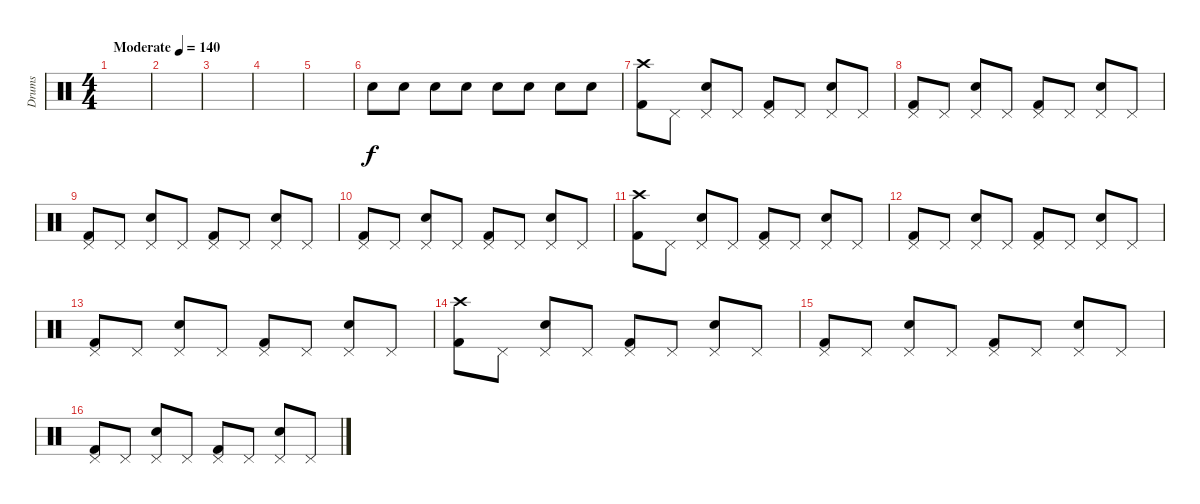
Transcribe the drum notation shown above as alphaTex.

\track ("Drums" "Drums") {instrument percussion}
\staff {score}
\articulation defaults
\ts (4 4)
\tempo (140 "Moderate")
\clef neutral
\ks c
|
|
|
|
|
"Snare (hit) 2".8 "Snare (hit) 2".8 "Snare (hit) 2".8 "Snare (hit) 2".8 "Snare (hit) 2".8 "Snare (hit) 2".8 "Snare (hit) 2".8 "Snare (hit) 2".8 |
("Crash high (hit)" "Kick (hit) 2").8 "Pedal Hi-Hat (hit)".8 ("Pedal Hi-Hat (hit)" "Snare (hit) 2").8 "Pedal Hi-Hat (hit)".8 ("Pedal Hi-Hat (hit)" "Kick (hit) 2").8 "Pedal Hi-Hat (hit)".8 ("Pedal Hi-Hat (hit)" "Snare (hit) 2").8 "Pedal Hi-Hat (hit)".8 |
("Pedal Hi-Hat (hit)" "Kick (hit) 2").8 "Pedal Hi-Hat (hit)".8 ("Pedal Hi-Hat (hit)" "Snare (hit) 2").8 "Pedal Hi-Hat (hit)".8 ("Pedal Hi-Hat (hit)" "Kick (hit) 2").8 "Pedal Hi-Hat (hit)".8 ("Pedal Hi-Hat (hit)" "Snare (hit) 2").8 "Pedal Hi-Hat (hit)".8 |
("Pedal Hi-Hat (hit)" "Kick (hit) 2").8 "Pedal Hi-Hat (hit)".8 ("Pedal Hi-Hat (hit)" "Snare (hit) 2").8 "Pedal Hi-Hat (hit)".8 ("Pedal Hi-Hat (hit)" "Kick (hit) 2").8 "Pedal Hi-Hat (hit)".8 ("Pedal Hi-Hat (hit)" "Snare (hit) 2").8 "Pedal Hi-Hat (hit)".8 |
("Pedal Hi-Hat (hit)" "Kick (hit) 2").8 "Pedal Hi-Hat (hit)".8 ("Pedal Hi-Hat (hit)" "Snare (hit) 2").8 "Pedal Hi-Hat (hit)".8 ("Pedal Hi-Hat (hit)" "Kick (hit) 2").8 "Pedal Hi-Hat (hit)".8 ("Pedal Hi-Hat (hit)" "Snare (hit) 2").8 "Pedal Hi-Hat (hit)".8 |
("Crash high (hit)" "Kick (hit) 2").8 "Pedal Hi-Hat (hit)".8 ("Pedal Hi-Hat (hit)" "Snare (hit) 2").8 "Pedal Hi-Hat (hit)".8 ("Pedal Hi-Hat (hit)" "Kick (hit) 2").8 "Pedal Hi-Hat (hit)".8 ("Pedal Hi-Hat (hit)" "Snare (hit) 2").8 "Pedal Hi-Hat (hit)".8 |
("Pedal Hi-Hat (hit)" "Kick (hit) 2").8 "Pedal Hi-Hat (hit)".8 ("Pedal Hi-Hat (hit)" "Snare (hit) 2").8 "Pedal Hi-Hat (hit)".8 ("Pedal Hi-Hat (hit)" "Kick (hit) 2").8 "Pedal Hi-Hat (hit)".8 ("Pedal Hi-Hat (hit)" "Snare (hit) 2").8 "Pedal Hi-Hat (hit)".8 |
("Pedal Hi-Hat (hit)" "Kick (hit) 2").8 "Pedal Hi-Hat (hit)".8 ("Pedal Hi-Hat (hit)" "Snare (hit) 2").8 "Pedal Hi-Hat (hit)".8 ("Pedal Hi-Hat (hit)" "Kick (hit) 2").8 "Pedal Hi-Hat (hit)".8 ("Pedal Hi-Hat (hit)" "Snare (hit) 2").8 "Pedal Hi-Hat (hit)".8 |
("Crash high (hit)" "Kick (hit) 2").8 "Pedal Hi-Hat (hit)".8 ("Pedal Hi-Hat (hit)" "Snare (hit) 2").8 "Pedal Hi-Hat (hit)".8 ("Pedal Hi-Hat (hit)" "Kick (hit) 2").8 "Pedal Hi-Hat (hit)".8 ("Pedal Hi-Hat (hit)" "Snare (hit) 2").8 "Pedal Hi-Hat (hit)".8 |
("Pedal Hi-Hat (hit)" "Kick (hit) 2").8 "Pedal Hi-Hat (hit)".8 ("Pedal Hi-Hat (hit)" "Snare (hit) 2").8 "Pedal Hi-Hat (hit)".8 ("Pedal Hi-Hat (hit)" "Kick (hit) 2").8 "Pedal Hi-Hat (hit)".8 ("Pedal Hi-Hat (hit)" "Snare (hit) 2").8 "Pedal Hi-Hat (hit)".8 |
("Pedal Hi-Hat (hit)" "Kick (hit) 2").8 "Pedal Hi-Hat (hit)".8 ("Pedal Hi-Hat (hit)" "Snare (hit) 2").8 "Pedal Hi-Hat (hit)".8 ("Pedal Hi-Hat (hit)" "Kick (hit) 2").8 "Pedal Hi-Hat (hit)".8 ("Pedal Hi-Hat (hit)" "Snare (hit) 2").8 "Pedal Hi-Hat (hit)".8
